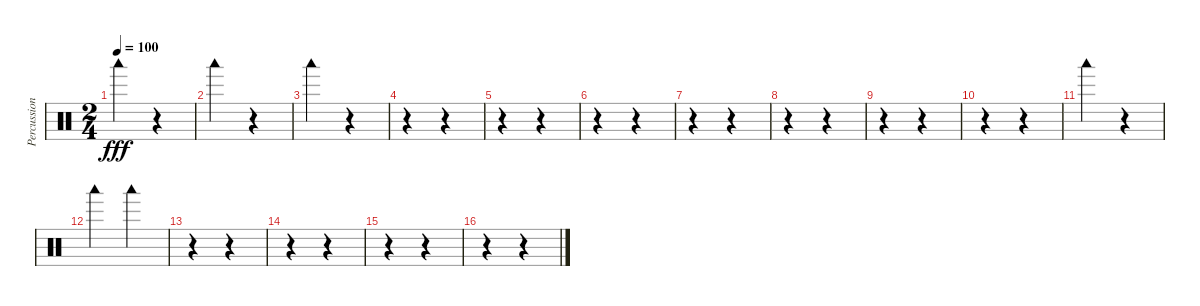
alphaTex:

\track ("Percussion" "Percussion") {instrument percussion}
\staff {score}
\articulation defaults
\ts (2 4)
\tempo 100
\clef neutral
\ks c "Woodblock low (hit)".4{dy fff}
r.4 |
"Woodblock low (hit)".4 r.4 |
"Woodblock low (hit)".4 r.4 |
r.4 r.4 |
r.4 r.4 |
r.4 r.4 |
r.4 r.4 |
r.4 r.4 |
r.4 r.4 |
r.4 r.4 |
"Woodblock low (hit)".4 r.4 |
"Woodblock low (hit)".4 "Woodblock low (hit)".4 |
r.4 r.4 |
r.4 r.4 |
r.4 r.4 |
r.4 r.4
